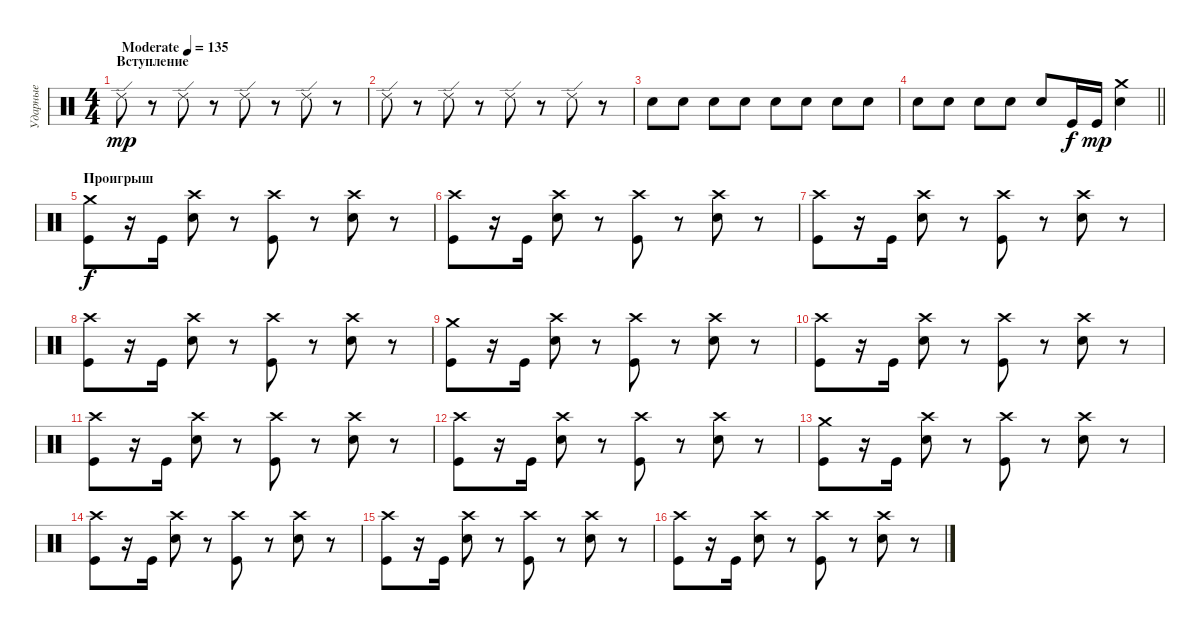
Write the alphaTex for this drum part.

\track ("Ударные" "Ударные") {instrument percussion}
\staff {score}
\articulation defaults
\ts (4 4)
\section ("" "Вступление")
\tempo (135 "Moderate")
\clef neutral
\ks c "Ride (edge) 2".8{dy mp}
r.8 "Ride (edge) 2".8 r.8 "Ride (edge) 2".8 r.8 "Ride (edge) 2".8 r.8 |
"Ride (edge) 2".8 r.8 "Ride (edge) 2".8 r.8 "Ride (edge) 2".8 r.8 "Ride (edge) 2".8 r.8 |
"Electric Snare (hit)".8 "Electric Snare (hit)".8 "Electric Snare (hit)".8 "Electric Snare (hit)".8 "Electric Snare (hit)".8 "Electric Snare (hit)".8 "Electric Snare (hit)".8 "Electric Snare (hit)".8 |
\barLineRight lightlight "Electric Snare (hit)".8 "Electric Snare (hit)".8 "Electric Snare (hit)".8 "Electric Snare (hit)".8 "Electric Snare (hit)".8 "Kick (hit)".16{dy f} "Kick (hit)".16{dy mp}
("Crash medium (hit)" "Electric Snare (hit)").4 |
\section ("" "Проигрыш")
("Crash medium (hit)" "Kick (hit)").8{dy f} r.16 "Kick (hit)".16 ("Crash high (hit)" "Electric Snare (hit)").8 r.8 ("Crash high (hit)" "Kick (hit)").8 r.8 ("Crash high (hit)" "Electric Snare (hit)").8 r.8 |
("Crash high (hit)" "Kick (hit)").8 r.16 "Kick (hit)".16 ("Crash high (hit)" "Electric Snare (hit)").8 r.8 ("Crash high (hit)" "Kick (hit)").8 r.8 ("Crash high (hit)" "Electric Snare (hit)").8 r.8 |
("Crash high (hit)" "Kick (hit)").8 r.16 "Kick (hit)".16 ("Crash high (hit)" "Electric Snare (hit)").8 r.8 ("Crash high (hit)" "Kick (hit)").8 r.8 ("Crash high (hit)" "Electric Snare (hit)").8 r.8 |
("Crash high (hit)" "Kick (hit)").8 r.16 "Kick (hit)".16 ("Crash high (hit)" "Electric Snare (hit)").8 r.8 ("Crash high (hit)" "Kick (hit)").8 r.8 ("Crash high (hit)" "Electric Snare (hit)").8 r.8 |
("Crash medium (hit)" "Kick (hit)").8 r.16 "Kick (hit)".16 ("Crash high (hit)" "Electric Snare (hit)").8 r.8 ("Crash high (hit)" "Kick (hit)").8 r.8 ("Crash high (hit)" "Electric Snare (hit)").8 r.8 |
("Crash high (hit)" "Kick (hit)").8 r.16 "Kick (hit)".16 ("Crash high (hit)" "Electric Snare (hit)").8 r.8 ("Crash high (hit)" "Kick (hit)").8 r.8 ("Crash high (hit)" "Electric Snare (hit)").8 r.8 |
("Crash high (hit)" "Kick (hit)").8 r.16 "Kick (hit)".16 ("Crash high (hit)" "Electric Snare (hit)").8 r.8 ("Crash high (hit)" "Kick (hit)").8 r.8 ("Crash high (hit)" "Electric Snare (hit)").8 r.8 |
("Crash high (hit)" "Kick (hit)").8 r.16 "Kick (hit)".16 ("Crash high (hit)" "Electric Snare (hit)").8 r.8 ("Crash high (hit)" "Kick (hit)").8 r.8 ("Crash high (hit)" "Electric Snare (hit)").8 r.8 |
("Crash medium (hit)" "Kick (hit)").8 r.16 "Kick (hit)".16 ("Crash high (hit)" "Electric Snare (hit)").8 r.8 ("Crash high (hit)" "Kick (hit)").8 r.8 ("Crash high (hit)" "Electric Snare (hit)").8 r.8 |
("Crash high (hit)" "Kick (hit)").8 r.16 "Kick (hit)".16 ("Crash high (hit)" "Electric Snare (hit)").8 r.8 ("Crash high (hit)" "Kick (hit)").8 r.8 ("Crash high (hit)" "Electric Snare (hit)").8 r.8 |
("Crash high (hit)" "Kick (hit)").8 r.16 "Kick (hit)".16 ("Crash high (hit)" "Electric Snare (hit)").8 r.8 ("Crash high (hit)" "Kick (hit)").8 r.8 ("Crash high (hit)" "Electric Snare (hit)").8 r.8 |
("Crash high (hit)" "Kick (hit)").8 r.16 "Kick (hit)".16 ("Crash high (hit)" "Electric Snare (hit)").8 r.8 ("Crash high (hit)" "Kick (hit)").8 r.8 ("Crash high (hit)" "Electric Snare (hit)").8 r.8
